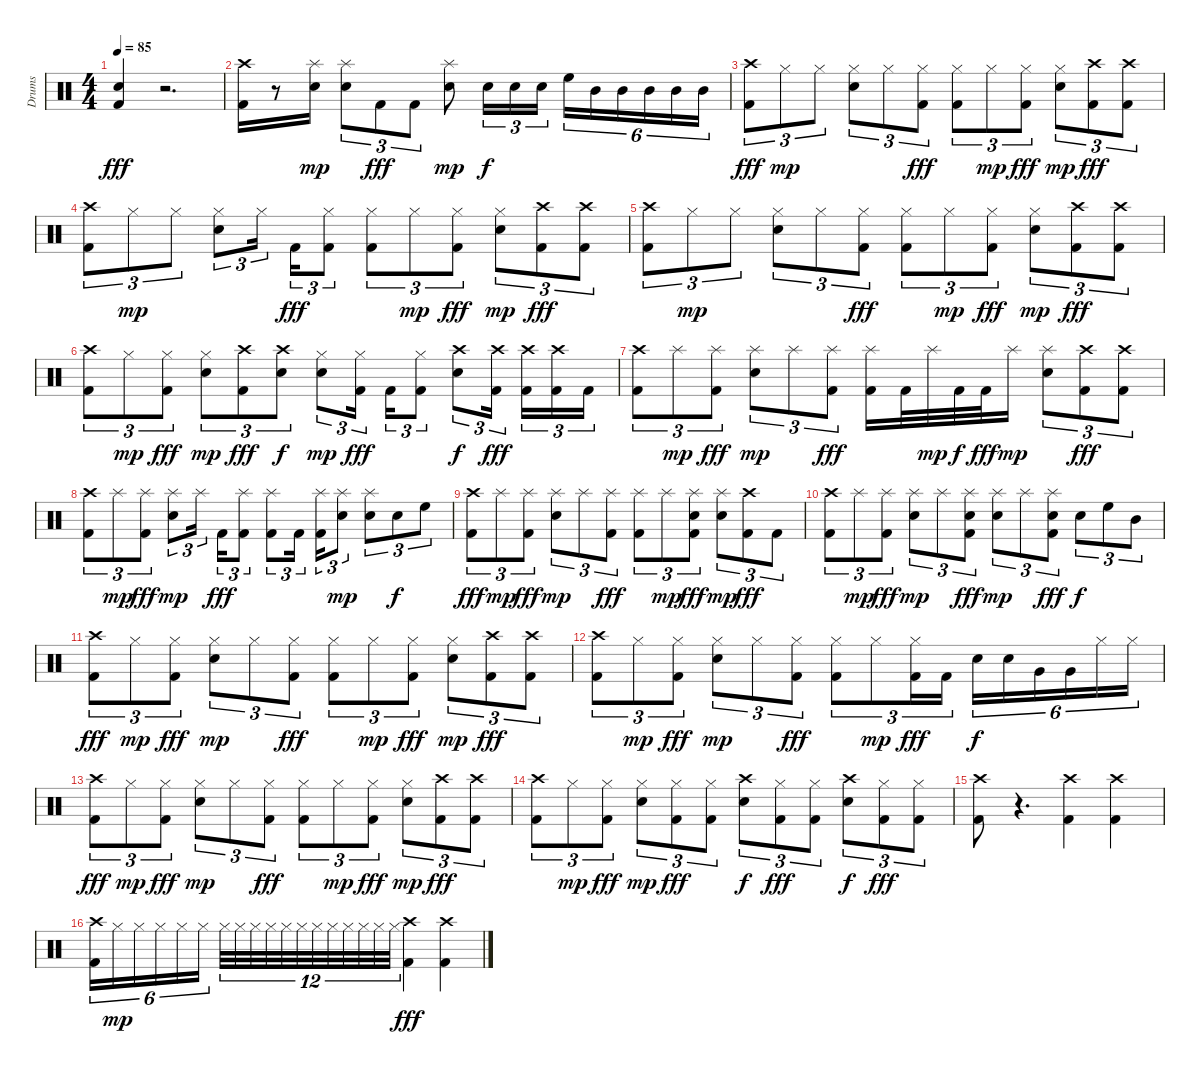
\track ("Drums" "Drums") {instrument percussion}
\staff {score}
\articulation defaults
\ts (4 4)
\tempo 85
\clef neutral
\ks c
("Snare (hit) 2" "Kick (hit) 2").4{dy fff} r.2{d} |
("Crash high (hit)" "Kick (hit) 2").16 r.8 ("Splash (hit)" "Snare (hit) 2").16{dy mp} ("Snare (hit) 2" "Splash (hit)").8{tu (3 2)} "Kick (hit) 2".8{tu (3 2) dy fff} "Kick (hit) 2".8{tu (3 2)} ("Snare (hit) 2" "Splash (hit)").8{dy mp} "Snare (hit) 2".16{tu (3 2) dy f} "Snare (hit) 2".16{tu (3 2)} "Snare (hit) 2".16{tu (3 2)} "High Floor Tom (hit)".16{tu (6 4)} "Mid Tom (hit)".16{tu (6 4)} "Mid Tom (hit)".16{tu (6 4)} "Mid Tom (hit)".16{tu (6 4)} "Mid Tom (hit)".16{tu (6 4)} "Mid Tom (hit)".16{tu (6 4)} |
("Crash high (hit)" "Kick (hit) 2").8{tu (3 2) dy fff} "Hi-Hat (closed)".8{tu (3 2) dy mp} "Hi-Hat (closed)".8{tu (3 2)} ("Snare (hit) 2" "Hi-Hat (closed)").8{tu (3 2)} "Hi-Hat (closed)".8{tu (3 2)} ("Hi-Hat (closed)" "Kick (hit) 2").8{tu (3 2) dy fff} ("Hi-Hat (closed)" "Kick (hit) 2").8{tu (3 2)} "Hi-Hat (closed)".8{tu (3 2) dy mp} ("Hi-Hat (closed)" "Kick (hit) 2").8{tu (3 2) dy fff} ("Snare (hit) 2" "Hi-Hat (closed)").8{tu (3 2) dy mp} ("Crash high (hit)" "Kick (hit) 2").8{tu (3 2) dy fff} ("Crash high (hit)" "Kick (hit) 2").8{tu (3 2)} |
("Crash high (hit)" "Kick (hit) 2").8{tu (3 2)} "Hi-Hat (closed)".8{tu (3 2) dy mp} "Hi-Hat (closed)".8{tu (3 2)} ("Snare (hit) 2" "Hi-Hat (closed)").8{tu (3 2)} "Hi-Hat (closed)".16{tu (3 2)} "Kick (hit) 2".16{tu (3 2) dy fff} ("Hi-Hat (closed)" "Kick (hit) 2").8{tu (3 2)} ("Hi-Hat (closed)" "Kick (hit) 2").8{tu (3 2)} "Hi-Hat (closed)".8{tu (3 2) dy mp} ("Hi-Hat (closed)" "Kick (hit) 2").8{tu (3 2) dy fff} ("Snare (hit) 2" "Hi-Hat (closed)").8{tu (3 2) dy mp} ("Crash high (hit)" "Kick (hit) 2").8{tu (3 2) dy fff} ("Crash high (hit)" "Kick (hit) 2").8{tu (3 2)} |
("Crash high (hit)" "Kick (hit) 2").8{tu (3 2)} "Hi-Hat (closed)".8{tu (3 2) dy mp} "Hi-Hat (closed)".8{tu (3 2)} ("Snare (hit) 2" "Hi-Hat (closed)").8{tu (3 2)} "Hi-Hat (closed)".8{tu (3 2)} ("Hi-Hat (closed)" "Kick (hit) 2").8{tu (3 2) dy fff} ("Hi-Hat (closed)" "Kick (hit) 2").8{tu (3 2)} "Hi-Hat (closed)".8{tu (3 2) dy mp} ("Hi-Hat (closed)" "Kick (hit) 2").8{tu (3 2) dy fff} ("Snare (hit) 2" "Hi-Hat (closed)").8{tu (3 2) dy mp} ("Crash high (hit)" "Kick (hit) 2").8{tu (3 2) dy fff} ("Crash high (hit)" "Kick (hit) 2").8{tu (3 2)} |
("Crash high (hit)" "Kick (hit) 2").8{tu (3 2)} "Hi-Hat (closed)".8{tu (3 2) dy mp} ("Hi-Hat (closed)" "Kick (hit) 2").8{tu (3 2) dy fff} ("Hi-Hat (closed)" "Snare (hit) 2").8{tu (3 2) dy mp} ("Crash high (hit)" "Kick (hit) 2").8{tu (3 2) dy fff} ("Crash high (hit)" "Snare (hit) 2").8{tu (3 2) dy f} ("Snare (hit) 2" "Hi-Hat (closed)").8{tu (3 2) dy mp} ("Hi-Hat (closed)" "Kick (hit) 2").16{tu (3 2) dy fff} "Kick (hit) 2".16{tu (3 2)} ("Hi-Hat (closed)" "Kick (hit) 2").8{tu (3 2)} ("Crash high (hit)" "Snare (hit) 2").8{tu (3 2) dy f} ("Crash high (hit)" "Kick (hit) 2").16{tu (3 2) dy fff} ("Crash high (hit)" "Kick (hit) 2").16{tu (3 2)} ("Crash high (hit)" "Kick (hit) 2").16{tu (3 2)} "Kick (hit) 2".16{tu (3 2)} |
("Crash high (hit)" "Kick (hit) 2").8{tu (3 2)} "Splash (hit)".8{tu (3 2) dy mp} ("Splash (hit)" "Kick (hit) 2").8{tu (3 2) dy fff} ("Snare (hit) 2" "Splash (hit)").8{tu (3 2) dy mp} "Splash (hit)".8{tu (3 2)} ("Splash (hit)" "Kick (hit) 2").8{tu (3 2) dy fff} ("Splash (hit)" "Kick (hit) 2").16 "Kick (hit) 2".32 "Splash (hit)".32{dy mp} "Kick (hit) 2".32{dy f} "Kick (hit) 2".32{dy fff} "Splash (hit)".16{dy mp} ("Snare (hit) 2" "Splash (hit)").8{tu (3 2)} ("Crash high (hit)" "Kick (hit) 2").8{tu (3 2) dy fff} ("Crash high (hit)" "Kick (hit) 2").8{tu (3 2)} |
("Crash high (hit)" "Kick (hit) 2").8{tu (3 2)} "Splash (hit)".8{tu (3 2) dy mp} ("Splash (hit)" "Kick (hit) 2").8{tu (3 2) dy fff} ("Snare (hit) 2" "Splash (hit)").8{tu (3 2) dy mp} "Splash (hit)".16{tu (3 2)} "Kick (hit) 2".16{tu (3 2) dy fff} ("Splash (hit)" "Kick (hit) 2").8{tu (3 2)} ("Splash (hit)" "Kick (hit) 2").8{tu (3 2)} "Kick (hit) 2".16{tu (3 2)} ("Splash (hit)" "Kick (hit) 2").16{tu (3 2)} ("Snare (hit) 2" "Splash (hit)").8{tu (3 2) dy mp} ("Splash (hit)" "Snare (hit) 2").8{tu (3 2)} "Snare (hit) 2".8{tu (3 2) dy f} "High Floor Tom (hit)".8{tu (3 2)} |
("Crash high (hit)" "Kick (hit) 2").8{tu (3 2) dy fff} "Splash (hit)".8{tu (3 2) dy mp} ("Splash (hit)" "Kick (hit) 2").8{tu (3 2) dy fff} ("Snare (hit) 2" "Splash (hit)").8{tu (3 2) dy mp} "Splash (hit)".8{tu (3 2)} ("Splash (hit)" "Kick (hit) 2").8{tu (3 2) dy fff} ("Splash (hit)" "Kick (hit) 2").8{tu (3 2)} "Splash (hit)".8{tu (3 2) dy mp} ("Snare (hit) 2" "Splash (hit)" "Kick (hit) 2").8{tu (3 2) dy fff} ("Snare (hit) 2" "Splash (hit)").8{tu (3 2) dy mp} ("Crash high (hit)" "Kick (hit) 2").8{tu (3 2) dy fff} "Kick (hit) 2".8{tu (3 2)} |
("Crash high (hit)" "Kick (hit) 2").8{tu (3 2)} "Splash (hit)".8{tu (3 2) dy mp} ("Splash (hit)" "Kick (hit) 2").8{tu (3 2) dy fff} ("Snare (hit) 2" "Splash (hit)").8{tu (3 2) dy mp} "Splash (hit)".8{tu (3 2)} ("Snare (hit) 2" "Splash (hit)" "Kick (hit) 2").8{tu (3 2) dy fff} ("Snare (hit) 2" "Splash (hit)").8{tu (3 2) dy mp} "Splash (hit)".8{tu (3 2)} ("Snare (hit) 2" "Splash (hit)" "Kick (hit) 2").8{tu (3 2) dy fff} "Snare (hit) 2".8{tu (3 2) dy f} "High Floor Tom (hit)".8{tu (3 2)} "Mid Tom (hit)".8{tu (3 2)} |
("Crash high (hit)" "Kick (hit) 2").8{tu (3 2) dy fff} "Hi-Hat (closed)".8{tu (3 2) dy mp} ("Hi-Hat (closed)" "Kick (hit) 2").8{tu (3 2) dy fff} ("Snare (hit) 2" "Hi-Hat (closed)").8{tu (3 2) dy mp} "Hi-Hat (closed)".8{tu (3 2)} ("Hi-Hat (closed)" "Kick (hit) 2").8{tu (3 2) dy fff} ("Hi-Hat (closed)" "Kick (hit) 2").8{tu (3 2)} "Hi-Hat (closed)".8{tu (3 2) dy mp} ("Hi-Hat (closed)" "Kick (hit) 2").8{tu (3 2) dy fff} ("Snare (hit) 2" "Hi-Hat (closed)").8{tu (3 2) dy mp} ("Crash high (hit)" "Kick (hit) 2").8{tu (3 2) dy fff} ("Crash high (hit)" "Kick (hit) 2").8{tu (3 2)} |
("Crash high (hit)" "Kick (hit) 2").8{tu (3 2)} "Hi-Hat (closed)".8{tu (3 2) dy mp} ("Hi-Hat (closed)" "Kick (hit) 2").8{tu (3 2) dy fff} ("Snare (hit) 2" "Hi-Hat (closed)").8{tu (3 2) dy mp} "Hi-Hat (closed)".8{tu (3 2)} ("Hi-Hat (closed)" "Kick (hit) 2").8{tu (3 2) dy fff} ("Hi-Hat (closed)" "Kick (hit) 2").8{tu (3 2)} "Hi-Hat (closed)".8{tu (3 2) dy mp} ("Hi-Hat (closed)" "Kick (hit) 2").16{tu (3 2) dy fff} "Kick (hit) 2".16{tu (3 2)} "Snare (hit) 2".16{tu (6 4) dy f} "Snare (hit) 2".16{tu (6 4)} "Very Low Tom (hit)".16{tu (6 4)} "Very Low Tom (hit)".16{tu (6 4)} "Hi-Hat (closed)".16{tu (6 4)} "Hi-Hat (closed)".16{tu (6 4)} |
("Crash high (hit)" "Kick (hit) 2").8{tu (3 2) dy fff} "Hi-Hat (closed)".8{tu (3 2) dy mp} ("Hi-Hat (closed)" "Kick (hit) 2").8{tu (3 2) dy fff} ("Snare (hit) 2" "Hi-Hat (closed)").8{tu (3 2) dy mp} "Hi-Hat (closed)".8{tu (3 2)} ("Hi-Hat (closed)" "Kick (hit) 2").8{tu (3 2) dy fff} ("Hi-Hat (closed)" "Kick (hit) 2").8{tu (3 2)} "Hi-Hat (closed)".8{tu (3 2) dy mp} ("Hi-Hat (closed)" "Kick (hit) 2").8{tu (3 2) dy fff} ("Hi-Hat (closed)" "Snare (hit) 2").8{tu (3 2) dy mp} ("Crash high (hit)" "Kick (hit) 2").8{tu (3 2) dy fff} ("Crash high (hit)" "Kick (hit) 2").8{tu (3 2)} |
("Crash high (hit)" "Kick (hit) 2").8{tu (3 2)} "Hi-Hat (closed)".8{tu (3 2) dy mp} ("Hi-Hat (closed)" "Kick (hit) 2").8{tu (3 2) dy fff} ("Snare (hit) 2" "Hi-Hat (closed)").8{tu (3 2) dy mp} ("Hi-Hat (closed)" "Kick (hit) 2").8{tu (3 2) dy fff} ("Hi-Hat (closed)" "Kick (hit) 2").8{tu (3 2)} ("Crash high (hit)" "Snare (hit) 2").8{tu (3 2) dy f} ("Hi-Hat (closed)" "Kick (hit) 2").8{tu (3 2) dy fff} ("Hi-Hat (closed)" "Kick (hit) 2").8{tu (3 2)} ("Crash high (hit)" "Snare (hit) 2").8{tu (3 2) dy f} ("Hi-Hat (closed)" "Kick (hit) 2").8{tu (3 2) dy fff} ("Hi-Hat (closed)" "Kick (hit) 2").8{tu (3 2)} |
("Crash high (hit)" "Kick (hit) 2").8 r.4{d} ("Crash high (hit)" "Kick (hit) 2").4 ("Crash high (hit)" "Kick (hit) 2").4 |
("Crash high (hit)" "Kick (hit) 2").16{tu (6 4)} "Hi-Hat (closed)".16{tu (6 4) dy mp} "Hi-Hat (closed)".16{tu (6 4)} "Hi-Hat (closed)".16{tu (6 4)} "Hi-Hat (closed)".16{tu (6 4)} "Hi-Hat (closed)".16{tu (6 4)} "Hi-Hat (closed)".32{tu (12 8)} "Hi-Hat (closed)".32{tu (12 8)} "Hi-Hat (closed)".32{tu (12 8)} "Hi-Hat (closed)".32{tu (12 8)} "Hi-Hat (closed)".32{tu (12 8)} "Hi-Hat (closed)".32{tu (12 8)} "Hi-Hat (closed)".32{tu (12 8)} "Hi-Hat (closed)".32{tu (12 8)} "Hi-Hat (closed)".32{tu (12 8)} "Hi-Hat (closed)".32{tu (12 8)} "Hi-Hat (closed)".32{tu (12 8)} "Hi-Hat (closed)".32{tu (12 8)} ("Crash high (hit)" "Kick (hit) 2").4{dy fff} ("Crash high (hit)" "Kick (hit) 2").4
